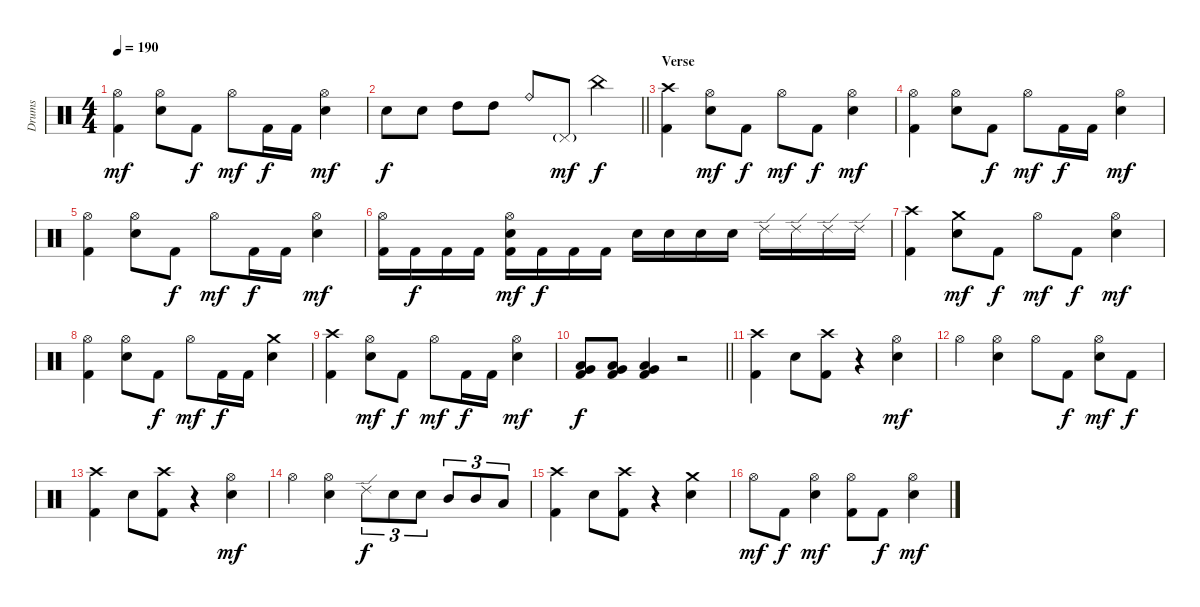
\track ("Drums" "Drums") {instrument percussion}
\staff {score}
\articulation defaults
\ts (4 4)
\tempo 190
\clef neutral
\ks c
("Hi-Hat (open)" "Kick (hit) 2").4{dy mf} ("Hi-Hat (open)" "Electric Snare (hit)").8 "Kick (hit) 2".8{dy f} "Hi-Hat (open)".8{dy mf} "Kick (hit) 2".16{dy f} "Kick (hit) 2".16 ("Hi-Hat (open)" "Electric Snare (hit)").4{dy mf} |
\barLineRight lightlight "Electric Snare (hit)".8{dy f} "Electric Snare (hit)".8 "High Tom (hit)".8 "High Tom (hit)".8 "Ride (bell)".8 "Pedal Hi-Hat (hit)"{g}.8{dy mf} "China (hit)".4{dy f}
|
\section ("" "Verse")
("Crash high (hit)" "Kick (hit) 2").4 ("Hi-Hat (open)" "Electric Snare (hit)").8{dy mf} "Kick (hit) 2".8{dy f} "Hi-Hat (open)".8{dy mf} "Kick (hit) 2".8{dy f} ("Hi-Hat (open)" "Electric Snare (hit)").4{dy mf} |
("Hi-Hat (open)" "Kick (hit) 2").4 ("Hi-Hat (open)" "Electric Snare (hit)").8 "Kick (hit) 2".8{dy f} "Hi-Hat (open)".8{dy mf} "Kick (hit) 2".16{dy f} "Kick (hit) 2".16 ("Hi-Hat (open)" "Electric Snare (hit)").4{dy mf} |
("Hi-Hat (open)" "Kick (hit) 2").4 ("Hi-Hat (open)" "Electric Snare (hit)").8 "Kick (hit) 2".8{dy f} "Hi-Hat (open)".8{dy mf} "Kick (hit) 2".16{dy f} "Kick (hit) 2".16 ("Hi-Hat (open)" "Electric Snare (hit)").4{dy mf} |
("Hi-Hat (open)" "Kick (hit) 2").16 "Kick (hit) 2".16{dy f} "Kick (hit) 2".16 "Kick (hit) 2".16 ("Hi-Hat (open)" "Electric Snare (hit)" "Kick (hit) 2").16{dy mf} "Kick (hit) 2".16{dy f} "Kick (hit) 2".16 "Kick (hit) 2".16 "Electric Snare (hit)".16 "Electric Snare (hit)".16 "Electric Snare (hit)".16 "Electric Snare (hit)".16 "Ride (edge) 2".16 "Ride (edge) 2".16 "Ride (edge) 2".16 "Ride (edge) 2".16 |
("Crash high (hit)" "Kick (hit) 2").4 ("Crash medium (hit)" "Electric Snare (hit)").8{dy mf} "Kick (hit) 2".8{dy f} "Hi-Hat (open)".8{dy mf} "Kick (hit) 2".8{dy f} ("Hi-Hat (open)" "Electric Snare (hit)").4{dy mf} |
("Hi-Hat (open)" "Kick (hit) 2").4 ("Hi-Hat (open)" "Electric Snare (hit)").8 "Kick (hit) 2".8{dy f} "Hi-Hat (open)".8{dy mf} "Kick (hit) 2".16{dy f} "Kick (hit) 2".16 ("Crash medium (hit)" "Electric Snare (hit)").4 |
("Crash high (hit)" "Kick (hit) 2").4 ("Hi-Hat (open)" "Electric Snare (hit)").8{dy mf} "Kick (hit) 2".8{dy f} "Hi-Hat (open)".8{dy mf} "Kick (hit) 2".16{dy f} "Kick (hit) 2".16 ("Hi-Hat (open)" "Electric Snare (hit)").4{dy mf} |
\barLineRight lightlight
("Low Tom (hit)" "Very Low Tom (hit)" "Kick (hit) 2").8{dy f} ("Low Tom (hit)" "Very Low Tom (hit)" "Kick (hit) 2").8 ("Low Tom (hit)" "Very Low Tom (hit)" "Kick (hit) 2").4 r.2 |
("Crash high (hit)" "Kick (hit) 2").4 "Electric Snare (hit)".8 ("Crash high (hit)" "Kick (hit) 2").8 r.4 ("Hi-Hat (open)" "Electric Snare (hit)").4{dy mf} |
"Hi-Hat (open)".4 ("Hi-Hat (open)" "Electric Snare (hit)").4 "Hi-Hat (open)".8 "Kick (hit) 2".8{dy f} ("Hi-Hat (open)" "Electric Snare (hit)").8{dy mf} "Kick (hit) 2".8{dy f} |
("Crash high (hit)" "Kick (hit) 2").4 "Electric Snare (hit)".8 ("Crash high (hit)" "Kick (hit) 2").8 r.4 ("Hi-Hat (open)" "Electric Snare (hit)").4{dy mf} |
"Hi-Hat (open)".4 ("Hi-Hat (open)" "Electric Snare (hit)").4 "Ride (edge) 2".8{tu (3 2) dy f} "Electric Snare (hit)".8{tu (3 2)} "Electric Snare (hit)".8{tu (3 2)} "Mid Tom (hit)".8{tu (3 2)} "Mid Tom (hit)".8{tu (3 2)} "Low Tom (hit)".8{tu (3 2)} |
("Crash high (hit)" "Kick (hit) 2").4 "Electric Snare (hit)".8 ("Crash high (hit)" "Kick (hit) 2").8 r.4 ("Crash medium (hit)" "Electric Snare (hit)").4 |
"Hi-Hat (open)".8{dy mf} "Kick (hit) 2".8{dy f} ("Hi-Hat (open)" "Electric Snare (hit)").4{dy mf} ("Hi-Hat (open)" "Kick (hit) 2").8 "Kick (hit) 2".8{dy f} ("Hi-Hat (open)" "Electric Snare (hit)").4{dy mf}
